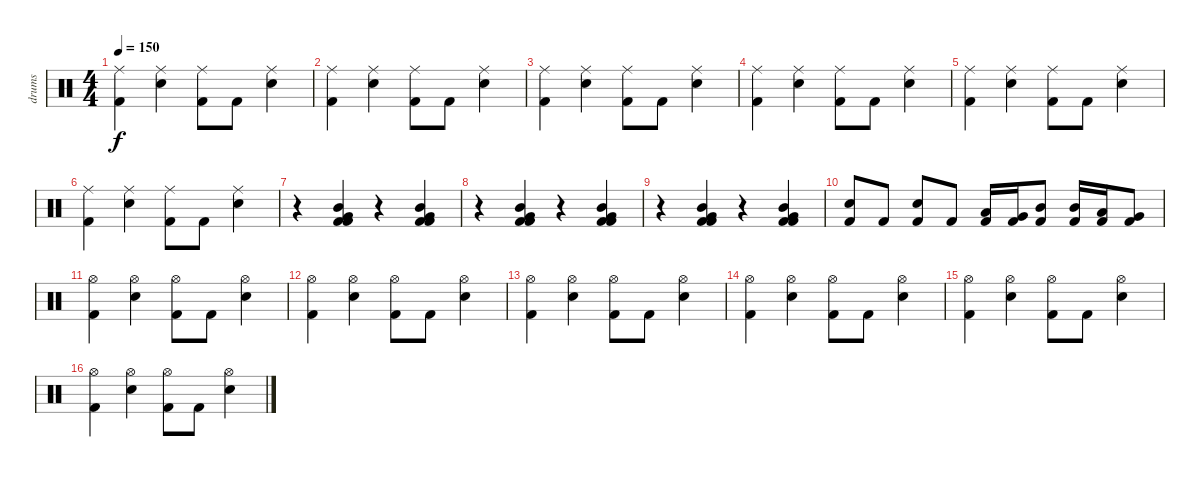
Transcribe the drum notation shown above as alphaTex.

\track ("drums" "drums") {instrument percussion}
\staff {score}
\articulation defaults
\ts (4 4)
\tempo 150
\clef neutral
\ks c
("Ride (middle)" "Kick (hit) 2").4{dy f} ("Ride (middle)" "Snare (hit) 2").4 ("Ride (middle)" "Kick (hit) 2").8 "Kick (hit) 2".8 ("Ride (middle)" "Snare (hit) 2").4 |
("Ride (middle)" "Kick (hit) 2").4 ("Ride (middle)" "Snare (hit) 2").4 ("Ride (middle)" "Kick (hit) 2").8 "Kick (hit) 2".8 ("Ride (middle)" "Snare (hit) 2").4 |
("Ride (middle)" "Kick (hit) 2").4 ("Ride (middle)" "Snare (hit) 2").4 ("Ride (middle)" "Kick (hit) 2").8 "Kick (hit) 2".8 ("Ride (middle)" "Snare (hit) 2").4 |
("Ride (middle)" "Kick (hit) 2").4 ("Ride (middle)" "Snare (hit) 2").4 ("Ride (middle)" "Kick (hit) 2").8 "Kick (hit) 2".8 ("Ride (middle)" "Snare (hit) 2").4 |
("Ride (middle)" "Kick (hit) 2").4 ("Ride (middle)" "Snare (hit) 2").4 ("Ride (middle)" "Kick (hit) 2").8 "Kick (hit) 2".8 ("Ride (middle)" "Snare (hit) 2").4 |
("Ride (middle)" "Kick (hit) 2").4 ("Ride (middle)" "Snare (hit) 2").4 ("Ride (middle)" "Kick (hit) 2").8 "Kick (hit) 2".8 ("Ride (middle)" "Snare (hit) 2").4 |
r.4 ("Mid Tom (hit)" "Very Low Tom (hit)" "Kick (hit) 2" "Kick (hit) 2").4 r.4 ("Mid Tom (hit)" "Very Low Tom (hit)" "Kick (hit) 2" "Kick (hit) 2").4 |
r.4 ("Mid Tom (hit)" "Very Low Tom (hit)" "Kick (hit) 2" "Kick (hit) 2").4 r.4 ("Mid Tom (hit)" "Very Low Tom (hit)" "Kick (hit) 2" "Kick (hit) 2").4 |
r.4 ("Mid Tom (hit)" "Very Low Tom (hit)" "Kick (hit) 2" "Kick (hit) 2").4 r.4 ("Mid Tom (hit)" "Very Low Tom (hit)" "Kick (hit) 2" "Kick (hit) 2").4 |
("Snare (hit) 2" "Kick (hit) 2").8 "Kick (hit) 2".8 ("Snare (hit) 2" "Kick (hit) 2").8 "Kick (hit) 2".8 ("Low Tom (hit)" "Kick (hit) 2").16 ("Very Low Tom (hit)" "Kick (hit) 2").16 ("Mid Tom (hit)" "Kick (hit) 2").8 ("Mid Tom (hit)" "Kick (hit) 2").16 ("Low Tom (hit)" "Kick (hit) 2").16 ("Very Low Tom (hit)" "Kick (hit) 2").8 |
("Hi-Hat (open)" "Kick (hit) 2").4 ("Hi-Hat (open)" "Snare (hit) 2").4 ("Hi-Hat (open)" "Kick (hit) 2").8 "Kick (hit) 2".8 ("Hi-Hat (open)" "Snare (hit) 2").4 |
("Hi-Hat (open)" "Kick (hit) 2").4 ("Hi-Hat (open)" "Snare (hit) 2").4 ("Hi-Hat (open)" "Kick (hit) 2").8 "Kick (hit) 2".8 ("Hi-Hat (open)" "Snare (hit) 2").4 |
("Hi-Hat (open)" "Kick (hit) 2").4 ("Hi-Hat (open)" "Snare (hit) 2").4 ("Hi-Hat (open)" "Kick (hit) 2").8 "Kick (hit) 2".8 ("Hi-Hat (open)" "Snare (hit) 2").4 |
("Hi-Hat (open)" "Kick (hit) 2").4 ("Hi-Hat (open)" "Snare (hit) 2").4 ("Hi-Hat (open)" "Kick (hit) 2").8 "Kick (hit) 2".8 ("Hi-Hat (open)" "Snare (hit) 2").4 |
("Hi-Hat (open)" "Kick (hit) 2").4 ("Hi-Hat (open)" "Snare (hit) 2").4 ("Hi-Hat (open)" "Kick (hit) 2").8 "Kick (hit) 2".8 ("Hi-Hat (open)" "Snare (hit) 2").4 |
("Hi-Hat (open)" "Kick (hit) 2").4 ("Hi-Hat (open)" "Snare (hit) 2").4 ("Hi-Hat (open)" "Kick (hit) 2").8 "Kick (hit) 2".8 ("Hi-Hat (open)" "Snare (hit) 2").4
